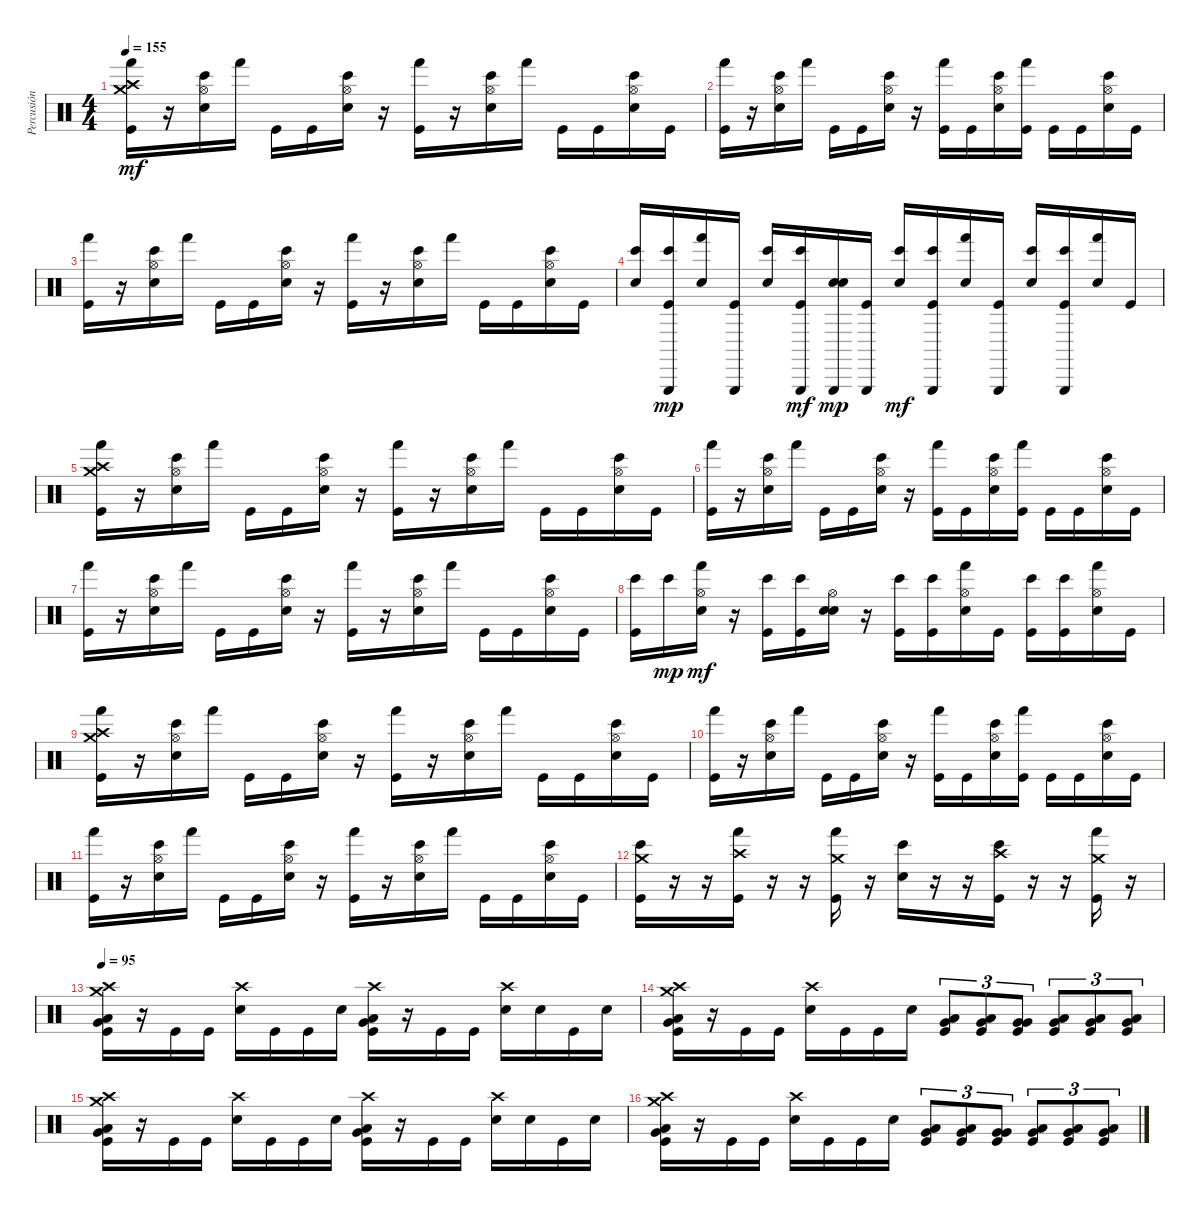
\track ("Percusión" "Percusión") {instrument percussion}
\staff {score}
\articulation defaults
\ts (4 4)
\tempo 155
\clef neutral
\ks c
("Hand (hit)" "Crash medium (hit)" "Crash high (hit)" "Kick (hit)").16{dy mf} r.16 ("Bongo High (hit)" "Hi-Hat (open)" "Electric Snare (hit)").16 "Hand (hit)".16 "Kick (hit)".16 "Kick (hit)".16 ("Bongo High (hit)" "Hi-Hat (open)" "Electric Snare (hit)").16 r.16 ("Hand (hit)" "Kick (hit)").16 r.16 ("Bongo High (hit)" "Hi-Hat (open)" "Electric Snare (hit)").16 "Hand (hit)".16 "Kick (hit)".16 "Kick (hit)".16 ("Bongo High (hit)" "Hi-Hat (open)" "Electric Snare (hit)").16 "Kick (hit)".16 |
("Hand (hit)" "Kick (hit)").16 r.16 ("Bongo High (hit)" "Hi-Hat (open)" "Electric Snare (hit)").16 "Hand (hit)".16 "Kick (hit)".16 "Kick (hit)".16 ("Bongo High (hit)" "Hi-Hat (open)" "Electric Snare (hit)").16 r.16 ("Hand (hit)" "Kick (hit)").16 "Kick (hit)".16 ("Bongo High (hit)" "Hi-Hat (open)" "Electric Snare (hit)").16 ("Hand (hit)" "Kick (hit)").16 "Kick (hit)".16 "Kick (hit)".16 ("Bongo High (hit)" "Hi-Hat (open)" "Electric Snare (hit)").16 "Kick (hit)".16 |
("Hand (hit)" "Kick (hit)").16 r.16 ("Bongo High (hit)" "Hi-Hat (open)" "Electric Snare (hit)").16 "Hand (hit)".16 "Kick (hit)".16 "Kick (hit)".16 ("Bongo High (hit)" "Hi-Hat (open)" "Electric Snare (hit)").16 r.16 ("Hand (hit)" "Kick (hit)").16 r.16 ("Bongo High (hit)" "Hi-Hat (open)" "Electric Snare (hit)").16 "Hand (hit)".16 "Kick (hit)".16 "Kick (hit)".16 ("Bongo High (hit)" "Hi-Hat (open)" "Electric Snare (hit)").16 "Kick (hit)".16 |
("Bongo High (hit)" "Electric Snare (hit)").16 ("Bongo High (hit)" "Triangle (hit)" "Kick (hit)").16{dy mp} ("Hand (hit)" "Electric Snare (hit)").16 ("Triangle (hit)" "Kick (hit)").16 ("Bongo High (hit)" "Electric Snare (hit)").16 ("Bongo High (hit)" "Triangle (hit)" "Kick (hit)").16{dy mf} ("Snare (hit)" "Triangle (hit)" "Electric Snare (hit)").16{dy mp} ("Triangle (hit)" "Kick (hit)").16 ("Bongo High (hit)" "Electric Snare (hit)").16{dy mf} ("Bongo High (hit)" "Triangle (hit)" "Kick (hit)").16 ("Hand (hit)" "Electric Snare (hit)").16 ("Triangle (hit)" "Kick (hit)").16 ("Bongo High (hit)" "Electric Snare (hit)").16 ("Bongo High (hit)" "Triangle (hit)" "Kick (hit)").16 ("Hand (hit)" "Electric Snare (hit)").16 "Kick (hit)".16 |
("Hand (hit)" "Crash medium (hit)" "Crash high (hit)" "Kick (hit)").16 r.16 ("Bongo High (hit)" "Hi-Hat (open)" "Electric Snare (hit)").16 "Hand (hit)".16 "Kick (hit)".16 "Kick (hit)".16 ("Bongo High (hit)" "Hi-Hat (open)" "Electric Snare (hit)").16 r.16 ("Hand (hit)" "Kick (hit)").16 r.16 ("Bongo High (hit)" "Hi-Hat (open)" "Electric Snare (hit)").16 "Hand (hit)".16 "Kick (hit)".16 "Kick (hit)".16 ("Bongo High (hit)" "Hi-Hat (open)" "Electric Snare (hit)").16 "Kick (hit)".16 |
("Hand (hit)" "Kick (hit)").16 r.16 ("Bongo High (hit)" "Hi-Hat (open)" "Electric Snare (hit)").16 "Hand (hit)".16 "Kick (hit)".16 "Kick (hit)".16 ("Bongo High (hit)" "Hi-Hat (open)" "Electric Snare (hit)").16 r.16 ("Hand (hit)" "Kick (hit)").16 "Kick (hit)".16 ("Bongo High (hit)" "Hi-Hat (open)" "Electric Snare (hit)").16 ("Hand (hit)" "Kick (hit)").16 "Kick (hit)".16 "Kick (hit)".16 ("Bongo High (hit)" "Hi-Hat (open)" "Electric Snare (hit)").16 "Kick (hit)".16 |
("Hand (hit)" "Kick (hit)").16 r.16 ("Bongo High (hit)" "Hi-Hat (open)" "Electric Snare (hit)").16 "Hand (hit)".16 "Kick (hit)".16 "Kick (hit)".16 ("Bongo High (hit)" "Hi-Hat (open)" "Electric Snare (hit)").16 r.16 ("Hand (hit)" "Kick (hit)").16 r.16 ("Bongo High (hit)" "Hi-Hat (open)" "Electric Snare (hit)").16 "Hand (hit)".16 "Kick (hit)".16 "Kick (hit)".16 ("Bongo High (hit)" "Hi-Hat (open)" "Electric Snare (hit)").16 "Kick (hit)".16 |
("Bongo High (hit)" "Kick (hit)").16 "Bongo High (hit)".16{dy mp} ("Hand (hit)" "Hi-Hat (open)" "Electric Snare (hit)").16{dy mf} r.16 ("Bongo High (hit)" "Kick (hit)").16 ("Bongo High (hit)" "Kick (hit)").16 ("Snare (hit)" "Hi-Hat (open)" "Electric Snare (hit)").16 r.16 ("Bongo High (hit)" "Kick (hit)").16 ("Bongo High (hit)" "Kick (hit)").16 ("Hand (hit)" "Hi-Hat (open)" "Electric Snare (hit)").16 "Kick (hit)".16 ("Bongo High (hit)" "Kick (hit)").16 ("Bongo High (hit)" "Kick (hit)").16 ("Hand (hit)" "Hi-Hat (open)" "Electric Snare (hit)").16 "Kick (hit)".16 |
("Hand (hit)" "Crash medium (hit)" "Crash high (hit)" "Kick (hit)").16 r.16 ("Bongo High (hit)" "Hi-Hat (open)" "Electric Snare (hit)").16 "Hand (hit)".16 "Kick (hit)".16 "Kick (hit)".16 ("Bongo High (hit)" "Hi-Hat (open)" "Electric Snare (hit)").16 r.16 ("Hand (hit)" "Kick (hit)").16 r.16 ("Bongo High (hit)" "Hi-Hat (open)" "Electric Snare (hit)").16 "Hand (hit)".16 "Kick (hit)".16 "Kick (hit)".16 ("Bongo High (hit)" "Hi-Hat (open)" "Electric Snare (hit)").16 "Kick (hit)".16 |
("Hand (hit)" "Kick (hit)").16 r.16 ("Bongo High (hit)" "Hi-Hat (open)" "Electric Snare (hit)").16 "Hand (hit)".16 "Kick (hit)".16 "Kick (hit)".16 ("Bongo High (hit)" "Hi-Hat (open)" "Electric Snare (hit)").16 r.16 ("Hand (hit)" "Kick (hit)").16 "Kick (hit)".16 ("Bongo High (hit)" "Hi-Hat (open)" "Electric Snare (hit)").16 ("Hand (hit)" "Kick (hit)").16 "Kick (hit)".16 "Kick (hit)".16 ("Bongo High (hit)" "Hi-Hat (open)" "Electric Snare (hit)").16 "Kick (hit)".16 |
("Hand (hit)" "Kick (hit)").16 r.16 ("Bongo High (hit)" "Hi-Hat (open)" "Electric Snare (hit)").16 "Hand (hit)".16 "Kick (hit)".16 "Kick (hit)".16 ("Bongo High (hit)" "Hi-Hat (open)" "Electric Snare (hit)").16 r.16 ("Hand (hit)" "Kick (hit)").16 r.16 ("Bongo High (hit)" "Hi-Hat (open)" "Electric Snare (hit)").16 "Hand (hit)".16 "Kick (hit)".16 "Kick (hit)".16 ("Bongo High (hit)" "Hi-Hat (open)" "Electric Snare (hit)").16 "Kick (hit)".16 |
("Bongo High (hit)" "Crash medium (hit)" "Kick (hit)").16 r.16 r.16 ("Hand (hit)" "Crash high (hit)" "Kick (hit)").16 r.16 r.16 ("Hand (hit)" "Crash medium (hit)" "Kick (hit)").16 r.16 ("Bongo High (hit)" "Electric Snare (hit)").16 r.16 r.16 ("Bongo High (hit)" "Crash high (hit)" "Kick (hit)").16 r.16 r.16 ("Hand (hit)" "Crash medium (hit)" "Kick (hit)").16 r.16 |
\tempo 95
("Low Floor Tom (hit)" "Very Low Tom (hit)" "Crash medium (hit)" "Crash high (hit)" "Kick (hit)").16 r.16 "Kick (hit)".16 "Kick (hit)".16 ("Crash high (hit)" "Electric Snare (hit)").16 "Kick (hit)".16 "Kick (hit)".16 "Electric Snare (hit)".16 ("Low Floor Tom (hit)" "Very Low Tom (hit)" "Crash high (hit)" "Kick (hit)").16 r.16 "Kick (hit)".16 "Kick (hit)".16 ("Crash high (hit)" "Electric Snare (hit)").16 "Electric Snare (hit)".16 "Kick (hit)".16 "Electric Snare (hit)".16 |
("Low Floor Tom (hit)" "Very Low Tom (hit)" "Crash medium (hit)" "Crash high (hit)" "Kick (hit)").16 r.16 "Kick (hit)".16 "Kick (hit)".16 ("Crash high (hit)" "Electric Snare (hit)").16 "Kick (hit)".16 "Kick (hit)".16 "Electric Snare (hit)".16 ("Very Low Tom (hit)" "Low Tom (hit)" "Kick (hit)").8{tu (3 2)} ("Very Low Tom (hit)" "Low Tom (hit)" "Kick (hit)").8{tu (3 2)} ("Very Low Tom (hit)" "Very Low Tom (hit)" "Kick (hit)").8{tu (3 2)} ("Low Floor Tom (hit)" "Very Low Tom (hit)" "Kick (hit)").8{tu (3 2)} ("Low Floor Tom (hit)" "Very Low Tom (hit)" "Kick (hit)").8{tu (3 2)} ("Low Floor Tom (hit)" "Very Low Tom (hit)" "Kick (hit)").8{tu (3 2)} |
("Low Floor Tom (hit)" "Very Low Tom (hit)" "Crash medium (hit)" "Crash high (hit)" "Kick (hit)").16 r.16 "Kick (hit)".16 "Kick (hit)".16 ("Crash high (hit)" "Electric Snare (hit)").16 "Kick (hit)".16 "Kick (hit)".16 "Electric Snare (hit)".16 ("Low Floor Tom (hit)" "Very Low Tom (hit)" "Crash high (hit)" "Kick (hit)").16 r.16 "Kick (hit)".16 "Kick (hit)".16 ("Crash high (hit)" "Electric Snare (hit)").16 "Electric Snare (hit)".16 "Kick (hit)".16 "Electric Snare (hit)".16 |
("Low Floor Tom (hit)" "Very Low Tom (hit)" "Crash medium (hit)" "Crash high (hit)" "Kick (hit)").16 r.16 "Kick (hit)".16 "Kick (hit)".16 ("Crash high (hit)" "Electric Snare (hit)").16 "Kick (hit)".16 "Kick (hit)".16 "Electric Snare (hit)".16 ("Very Low Tom (hit)" "Low Tom (hit)" "Kick (hit)").8{tu (3 2)} ("Very Low Tom (hit)" "Low Tom (hit)" "Kick (hit)").8{tu (3 2)} ("Very Low Tom (hit)" "Very Low Tom (hit)" "Kick (hit)").8{tu (3 2)} ("Low Floor Tom (hit)" "Very Low Tom (hit)" "Kick (hit)").8{tu (3 2)} ("Low Floor Tom (hit)" "Very Low Tom (hit)" "Kick (hit)").8{tu (3 2)} ("Low Floor Tom (hit)" "Very Low Tom (hit)" "Kick (hit)").8{tu (3 2)}
